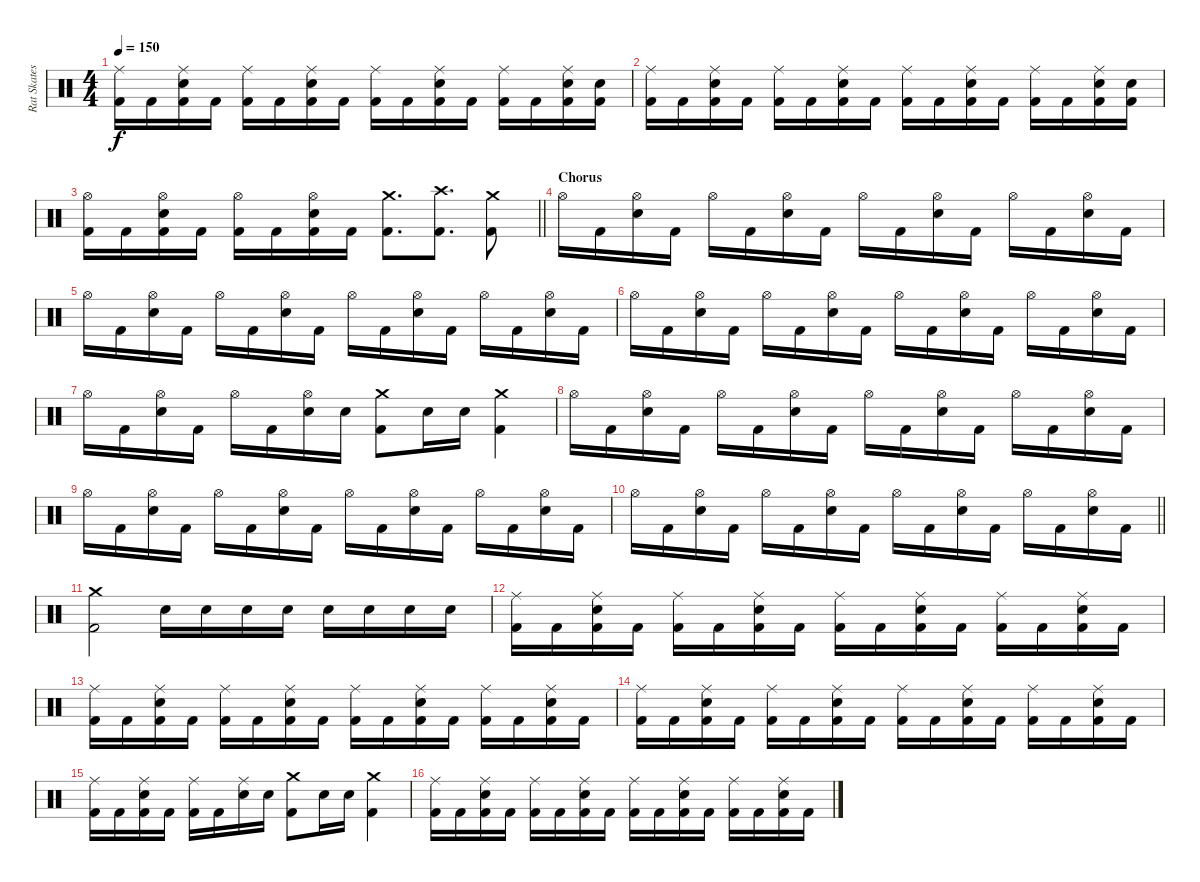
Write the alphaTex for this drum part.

\track ("Rat Skates" "Rat Skates") {instrument percussion}
\staff {score}
\articulation defaults
\ts (4 4)
\tempo 150
\clef neutral
\ks c
("Ride (middle)" "Kick (hit) 2").16{dy f} "Kick (hit) 2".16 ("Ride (middle)" "Snare (hit) 2" "Kick (hit) 2").16 "Kick (hit) 2".16 ("Ride (middle)" "Kick (hit) 2").16 "Kick (hit) 2".16 ("Ride (middle)" "Snare (hit) 2" "Kick (hit) 2").16 "Kick (hit) 2".16 ("Ride (middle)" "Kick (hit) 2").16 "Kick (hit) 2".16 ("Ride (middle)" "Snare (hit) 2" "Kick (hit) 2").16 "Kick (hit) 2".16 ("Ride (middle)" "Kick (hit) 2").16 "Kick (hit) 2".16 ("Ride (middle)" "Snare (hit) 2" "Kick (hit) 2").16 ("Snare (hit) 2" "Kick (hit) 2").16 |
("Ride (middle)" "Kick (hit) 2").16 "Kick (hit) 2".16 ("Ride (middle)" "Snare (hit) 2" "Kick (hit) 2").16 "Kick (hit) 2".16 ("Ride (middle)" "Kick (hit) 2").16 "Kick (hit) 2".16 ("Ride (middle)" "Snare (hit) 2" "Kick (hit) 2").16 "Kick (hit) 2".16 ("Ride (middle)" "Kick (hit) 2").16 "Kick (hit) 2".16 ("Ride (middle)" "Snare (hit) 2" "Kick (hit) 2").16 "Kick (hit) 2".16 ("Ride (middle)" "Kick (hit) 2").16 "Kick (hit) 2".16 ("Ride (middle)" "Snare (hit) 2" "Kick (hit) 2").16 ("Snare (hit) 2" "Kick (hit) 2").16 |
\barLineRight lightlight
("Hi-Hat (open)" "Kick (hit) 2").16 "Kick (hit) 2".16 ("Hi-Hat (open)" "Snare (hit) 2" "Kick (hit) 2").16 "Kick (hit) 2".16 ("Hi-Hat (open)" "Kick (hit) 2").16 "Kick (hit) 2".16 ("Hi-Hat (open)" "Snare (hit) 2" "Kick (hit) 2").16 "Kick (hit) 2".16 ("Crash medium (hit)" "Kick (hit) 2").8{d} ("Crash high (hit)" "Kick (hit) 2").8{d} ("Crash medium (hit)" "Kick (hit) 2").8 |
\section ("" "Chorus")
"Hi-Hat (open)".16 "Kick (hit) 2".16 ("Hi-Hat (open)" "Snare (hit) 2").16 "Kick (hit) 2".16 "Hi-Hat (open)".16 "Kick (hit) 2".16 ("Hi-Hat (open)" "Snare (hit) 2").16 "Kick (hit) 2".16 "Hi-Hat (open)".16 "Kick (hit) 2".16 ("Hi-Hat (open)" "Snare (hit) 2").16 "Kick (hit) 2".16 "Hi-Hat (open)".16 "Kick (hit) 2".16 ("Hi-Hat (open)" "Snare (hit) 2").16 "Kick (hit) 2".16 |
"Hi-Hat (open)".16 "Kick (hit) 2".16 ("Hi-Hat (open)" "Snare (hit) 2").16 "Kick (hit) 2".16 "Hi-Hat (open)".16 "Kick (hit) 2".16 ("Hi-Hat (open)" "Snare (hit) 2").16 "Kick (hit) 2".16 "Hi-Hat (open)".16 "Kick (hit) 2".16 ("Hi-Hat (open)" "Snare (hit) 2").16 "Kick (hit) 2".16 "Hi-Hat (open)".16 "Kick (hit) 2".16 ("Hi-Hat (open)" "Snare (hit) 2").16 "Kick (hit) 2".16 |
"Hi-Hat (open)".16 "Kick (hit) 2".16 ("Hi-Hat (open)" "Snare (hit) 2").16 "Kick (hit) 2".16 "Hi-Hat (open)".16 "Kick (hit) 2".16 ("Hi-Hat (open)" "Snare (hit) 2").16 "Kick (hit) 2".16 "Hi-Hat (open)".16 "Kick (hit) 2".16 ("Hi-Hat (open)" "Snare (hit) 2").16 "Kick (hit) 2".16 "Hi-Hat (open)".16 "Kick (hit) 2".16 ("Hi-Hat (open)" "Snare (hit) 2").16 "Kick (hit) 2".16 |
"Hi-Hat (open)".16 "Kick (hit) 2".16 ("Hi-Hat (open)" "Snare (hit) 2").16 "Kick (hit) 2".16 "Hi-Hat (open)".16 "Kick (hit) 2".16 ("Hi-Hat (open)" "Snare (hit) 2").16 "Snare (hit) 2".16 ("Crash medium (hit)" "Kick (hit) 2").8 "Snare (hit) 2".16 "Snare (hit) 2".16 ("Crash medium (hit)" "Kick (hit) 2").4 |
"Hi-Hat (open)".16 "Kick (hit) 2".16 ("Hi-Hat (open)" "Snare (hit) 2").16 "Kick (hit) 2".16 "Hi-Hat (open)".16 "Kick (hit) 2".16 ("Hi-Hat (open)" "Snare (hit) 2").16 "Kick (hit) 2".16 "Hi-Hat (open)".16 "Kick (hit) 2".16 ("Hi-Hat (open)" "Snare (hit) 2").16 "Kick (hit) 2".16 "Hi-Hat (open)".16 "Kick (hit) 2".16 ("Hi-Hat (open)" "Snare (hit) 2").16 "Kick (hit) 2".16 |
"Hi-Hat (open)".16 "Kick (hit) 2".16 ("Hi-Hat (open)" "Snare (hit) 2").16 "Kick (hit) 2".16 "Hi-Hat (open)".16 "Kick (hit) 2".16 ("Hi-Hat (open)" "Snare (hit) 2").16 "Kick (hit) 2".16 "Hi-Hat (open)".16 "Kick (hit) 2".16 ("Hi-Hat (open)" "Snare (hit) 2").16 "Kick (hit) 2".16 "Hi-Hat (open)".16 "Kick (hit) 2".16 ("Hi-Hat (open)" "Snare (hit) 2").16 "Kick (hit) 2".16 |
\barLineRight lightlight "Hi-Hat (open)".16 "Kick (hit) 2".16
("Hi-Hat (open)" "Snare (hit) 2").16 "Kick (hit) 2".16 "Hi-Hat (open)".16 "Kick (hit) 2".16 ("Hi-Hat (open)" "Snare (hit) 2").16 "Kick (hit) 2".16 "Hi-Hat (open)".16 "Kick (hit) 2".16 ("Hi-Hat (open)" "Snare (hit) 2").16 "Kick (hit) 2".16 "Hi-Hat (open)".16 "Kick (hit) 2".16 ("Hi-Hat (open)" "Snare (hit) 2").16 "Kick (hit) 2".16 |
("Crash medium (hit)" "Kick (hit) 2").2 "Snare (hit) 2".16 "Snare (hit) 2".16 "Snare (hit) 2".16 "Snare (hit) 2".16 "Snare (hit) 2".16 "Snare (hit) 2".16 "Snare (hit) 2".16 "Snare (hit) 2".16 |
("Ride (middle)" "Kick (hit) 2").16 "Kick (hit) 2".16 ("Ride (middle)" "Snare (hit) 2" "Kick (hit) 2").16 "Kick (hit) 2".16 ("Ride (middle)" "Kick (hit) 2").16 "Kick (hit) 2".16 ("Ride (middle)" "Snare (hit) 2" "Kick (hit) 2").16 "Kick (hit) 2".16 ("Ride (middle)" "Kick (hit) 2").16 "Kick (hit) 2".16 ("Ride (middle)" "Snare (hit) 2" "Kick (hit) 2").16 "Kick (hit) 2".16 ("Ride (middle)" "Kick (hit) 2").16 "Kick (hit) 2".16 ("Ride (middle)" "Snare (hit) 2" "Kick (hit) 2").16 "Kick (hit) 2".16 |
("Ride (middle)" "Kick (hit) 2").16 "Kick (hit) 2".16 ("Ride (middle)" "Snare (hit) 2" "Kick (hit) 2").16 "Kick (hit) 2".16 ("Ride (middle)" "Kick (hit) 2").16 "Kick (hit) 2".16 ("Ride (middle)" "Snare (hit) 2" "Kick (hit) 2").16 "Kick (hit) 2".16 ("Ride (middle)" "Kick (hit) 2").16 "Kick (hit) 2".16 ("Ride (middle)" "Snare (hit) 2" "Kick (hit) 2").16 "Kick (hit) 2".16 ("Ride (middle)" "Kick (hit) 2").16 "Kick (hit) 2".16 ("Ride (middle)" "Snare (hit) 2" "Kick (hit) 2").16 "Kick (hit) 2".16 |
("Ride (middle)" "Kick (hit) 2").16 "Kick (hit) 2".16 ("Ride (middle)" "Snare (hit) 2" "Kick (hit) 2").16 "Kick (hit) 2".16 ("Ride (middle)" "Kick (hit) 2").16 "Kick (hit) 2".16 ("Ride (middle)" "Snare (hit) 2" "Kick (hit) 2").16 "Kick (hit) 2".16 ("Ride (middle)" "Kick (hit) 2").16 "Kick (hit) 2".16 ("Ride (middle)" "Snare (hit) 2" "Kick (hit) 2").16 "Kick (hit) 2".16 ("Ride (middle)" "Kick (hit) 2").16 "Kick (hit) 2".16 ("Ride (middle)" "Snare (hit) 2" "Kick (hit) 2").16 "Kick (hit) 2".16 |
("Ride (middle)" "Kick (hit) 2").16 "Kick (hit) 2".16 ("Ride (middle)" "Snare (hit) 2" "Kick (hit) 2").16 "Kick (hit) 2".16 ("Ride (middle)" "Kick (hit) 2").16 "Kick (hit) 2".16 ("Ride (middle)" "Snare (hit) 2").16 "Snare (hit) 2".16 ("Crash medium (hit)" "Kick (hit) 2").8 "Snare (hit) 2".16 "Snare (hit) 2".16 ("Crash medium (hit)" "Kick (hit) 2").4 |
("Ride (middle)" "Kick (hit) 2").16 "Kick (hit) 2".16 ("Ride (middle)" "Snare (hit) 2" "Kick (hit) 2").16 "Kick (hit) 2".16 ("Ride (middle)" "Kick (hit) 2").16 "Kick (hit) 2".16 ("Ride (middle)" "Snare (hit) 2" "Kick (hit) 2").16 "Kick (hit) 2".16 ("Ride (middle)" "Kick (hit) 2").16 "Kick (hit) 2".16 ("Ride (middle)" "Snare (hit) 2" "Kick (hit) 2").16 "Kick (hit) 2".16 ("Ride (middle)" "Kick (hit) 2").16 "Kick (hit) 2".16 ("Ride (middle)" "Snare (hit) 2" "Kick (hit) 2").16 "Kick (hit) 2".16
